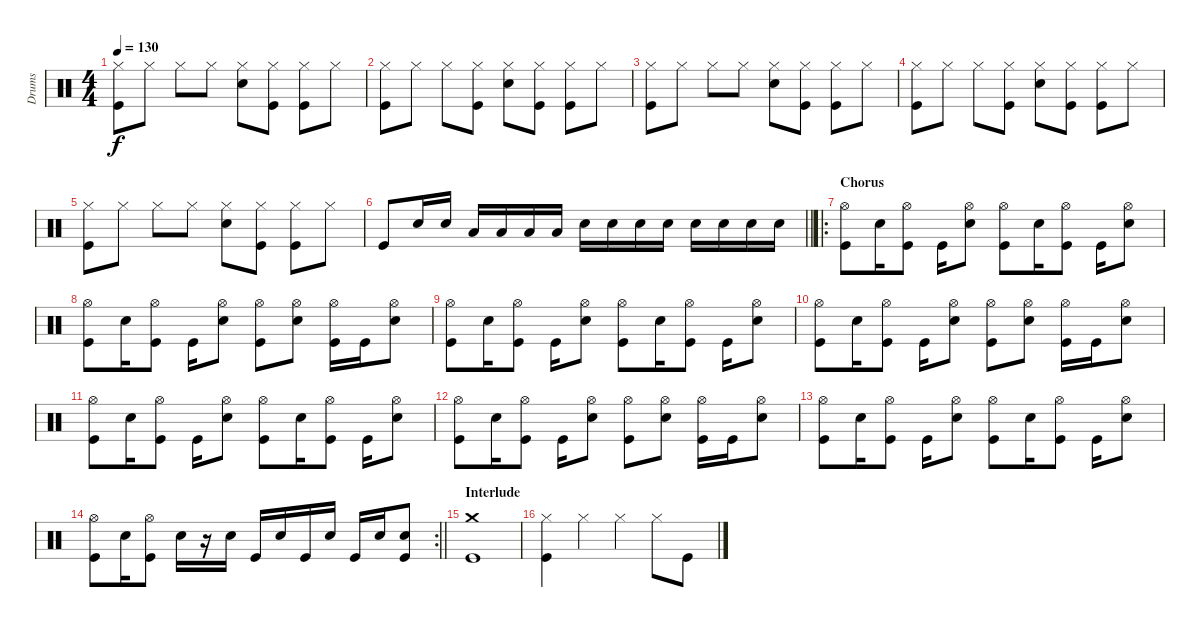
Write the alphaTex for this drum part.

\track ("Drums" "Drums") {instrument percussion}
\staff {score}
\articulation defaults
\ts (4 4)
\tempo 130
\clef neutral
\ks c
("Hi-Hat (closed)" "Kick (hit)").8{dy f} "Hi-Hat (closed)".8 "Hi-Hat (closed)".8 "Hi-Hat (closed)".8 ("Hi-Hat (closed)" "Snare (hit) 2").8 ("Hi-Hat (closed)" "Kick (hit)").8 ("Hi-Hat (closed)" "Kick (hit)").8 "Hi-Hat (closed)".8 |
("Hi-Hat (closed)" "Kick (hit)").8 "Hi-Hat (closed)".8 "Hi-Hat (closed)".8 ("Hi-Hat (closed)" "Kick (hit)").8 ("Hi-Hat (closed)" "Snare (hit) 2").8 ("Hi-Hat (closed)" "Kick (hit)").8 ("Hi-Hat (closed)" "Kick (hit)").8 "Hi-Hat (closed)".8 |
("Hi-Hat (closed)" "Kick (hit)").8 "Hi-Hat (closed)".8 "Hi-Hat (closed)".8 "Hi-Hat (closed)".8 ("Hi-Hat (closed)" "Snare (hit) 2").8 ("Hi-Hat (closed)" "Kick (hit)").8 ("Hi-Hat (closed)" "Kick (hit)").8 "Hi-Hat (closed)".8 |
("Hi-Hat (closed)" "Kick (hit)").8 "Hi-Hat (closed)".8 "Hi-Hat (closed)".8 ("Hi-Hat (closed)" "Kick (hit)").8 ("Hi-Hat (closed)" "Snare (hit) 2").8 ("Hi-Hat (closed)" "Kick (hit)").8 ("Hi-Hat (closed)" "Kick (hit)").8 "Hi-Hat (closed)".8 |
("Hi-Hat (closed)" "Kick (hit)").8 "Hi-Hat (closed)".8 "Hi-Hat (closed)".8 "Hi-Hat (closed)".8 ("Hi-Hat (closed)" "Snare (hit) 2").8 ("Hi-Hat (closed)" "Kick (hit)").8 ("Hi-Hat (closed)" "Kick (hit)").8 "Hi-Hat (closed)".8 |
\barLineRight lightlight "Kick (hit)".8 "Snare (hit) 2".16 "Snare (hit) 2".16 "Low Tom (hit)".16 "Low Tom (hit)".16 "Low Floor Tom (hit)".16 "Low Floor Tom (hit)".16 "Snare (hit) 2".16 "Snare (hit) 2".16 "Snare (hit) 2".16 "Snare (hit) 2".16 "Snare (hit) 2".16 "Snare (hit) 2".16 "Snare (hit) 2".16 "Snare (hit) 2".16
|
\ro
\section ("" "Chorus")
("Hi-Hat (open)" "Kick (hit)").8 "Snare (hit) 2".16 ("Hi-Hat (open)" "Kick (hit)").8 "Kick (hit)".16 ("Hi-Hat (open)" "Snare (hit) 2").8 ("Hi-Hat (open)" "Kick (hit)").8 "Snare (hit) 2".16 ("Hi-Hat (open)" "Kick (hit)").8 "Kick (hit)".16 ("Hi-Hat (open)" "Snare (hit) 2").8 |
("Hi-Hat (open)" "Kick (hit)").8 "Snare (hit) 2".16 ("Hi-Hat (open)" "Kick (hit)").8 "Kick (hit)".16 ("Hi-Hat (open)" "Snare (hit) 2").8 ("Hi-Hat (open)" "Kick (hit)").8 ("Hi-Hat (open)" "Snare (hit) 2").8 ("Hi-Hat (open)" "Kick (hit)").16 "Kick (hit)".16 ("Hi-Hat (open)" "Snare (hit) 2").8 |
("Hi-Hat (open)" "Kick (hit)").8 "Snare (hit) 2".16 ("Hi-Hat (open)" "Kick (hit)").8 "Kick (hit)".16 ("Hi-Hat (open)" "Snare (hit) 2").8 ("Hi-Hat (open)" "Kick (hit)").8 "Snare (hit) 2".16 ("Hi-Hat (open)" "Kick (hit)").8 "Kick (hit)".16 ("Hi-Hat (open)" "Snare (hit) 2").8 |
("Hi-Hat (open)" "Kick (hit)").8 "Snare (hit) 2".16 ("Hi-Hat (open)" "Kick (hit)").8 "Kick (hit)".16 ("Hi-Hat (open)" "Snare (hit) 2").8 ("Hi-Hat (open)" "Kick (hit)").8 ("Hi-Hat (open)" "Snare (hit) 2").8 ("Hi-Hat (open)" "Kick (hit)").16 "Kick (hit)".16 ("Hi-Hat (open)" "Snare (hit) 2").8 |
("Hi-Hat (open)" "Kick (hit)").8 "Snare (hit) 2".16 ("Hi-Hat (open)" "Kick (hit)").8 "Kick (hit)".16 ("Hi-Hat (open)" "Snare (hit) 2").8 ("Hi-Hat (open)" "Kick (hit)").8 "Snare (hit) 2".16 ("Hi-Hat (open)" "Kick (hit)").8 "Kick (hit)".16 ("Hi-Hat (open)" "Snare (hit) 2").8 |
("Hi-Hat (open)" "Kick (hit)").8 "Snare (hit) 2".16 ("Hi-Hat (open)" "Kick (hit)").8 "Kick (hit)".16 ("Hi-Hat (open)" "Snare (hit) 2").8 ("Hi-Hat (open)" "Kick (hit)").8 ("Hi-Hat (open)" "Snare (hit) 2").8 ("Hi-Hat (open)" "Kick (hit)").16 "Kick (hit)".16 ("Hi-Hat (open)" "Snare (hit) 2").8 |
("Hi-Hat (open)" "Kick (hit)").8 "Snare (hit) 2".16 ("Hi-Hat (open)" "Kick (hit)").8 "Kick (hit)".16 ("Hi-Hat (open)" "Snare (hit) 2").8 ("Hi-Hat (open)" "Kick (hit)").8 "Snare (hit) 2".16 ("Hi-Hat (open)" "Kick (hit)").8 "Kick (hit)".16 ("Hi-Hat (open)" "Snare (hit) 2").8 |
\rc 2
\barLineRight lightlight
("Hi-Hat (open)" "Kick (hit)").8 "Snare (hit) 2".16 ("Hi-Hat (open)" "Kick (hit)").8 "Snare (hit) 2".16 r.16 "Snare (hit) 2".16 "Kick (hit)".16 "Snare (hit) 2".16 "Kick (hit)".16 "Snare (hit) 2".16 "Kick (hit)".16 "Snare (hit) 2".16 ("Snare (hit) 2" "Kick (hit)").8 |
\section ("" "Interlude")
("Crash medium (hit)" "Kick (hit)").1 |
("Hi-Hat (closed)" "Kick (hit)").4 "Hi-Hat (closed)".4 "Hi-Hat (closed)".4 "Hi-Hat (closed)".8 "Kick (hit)".8
